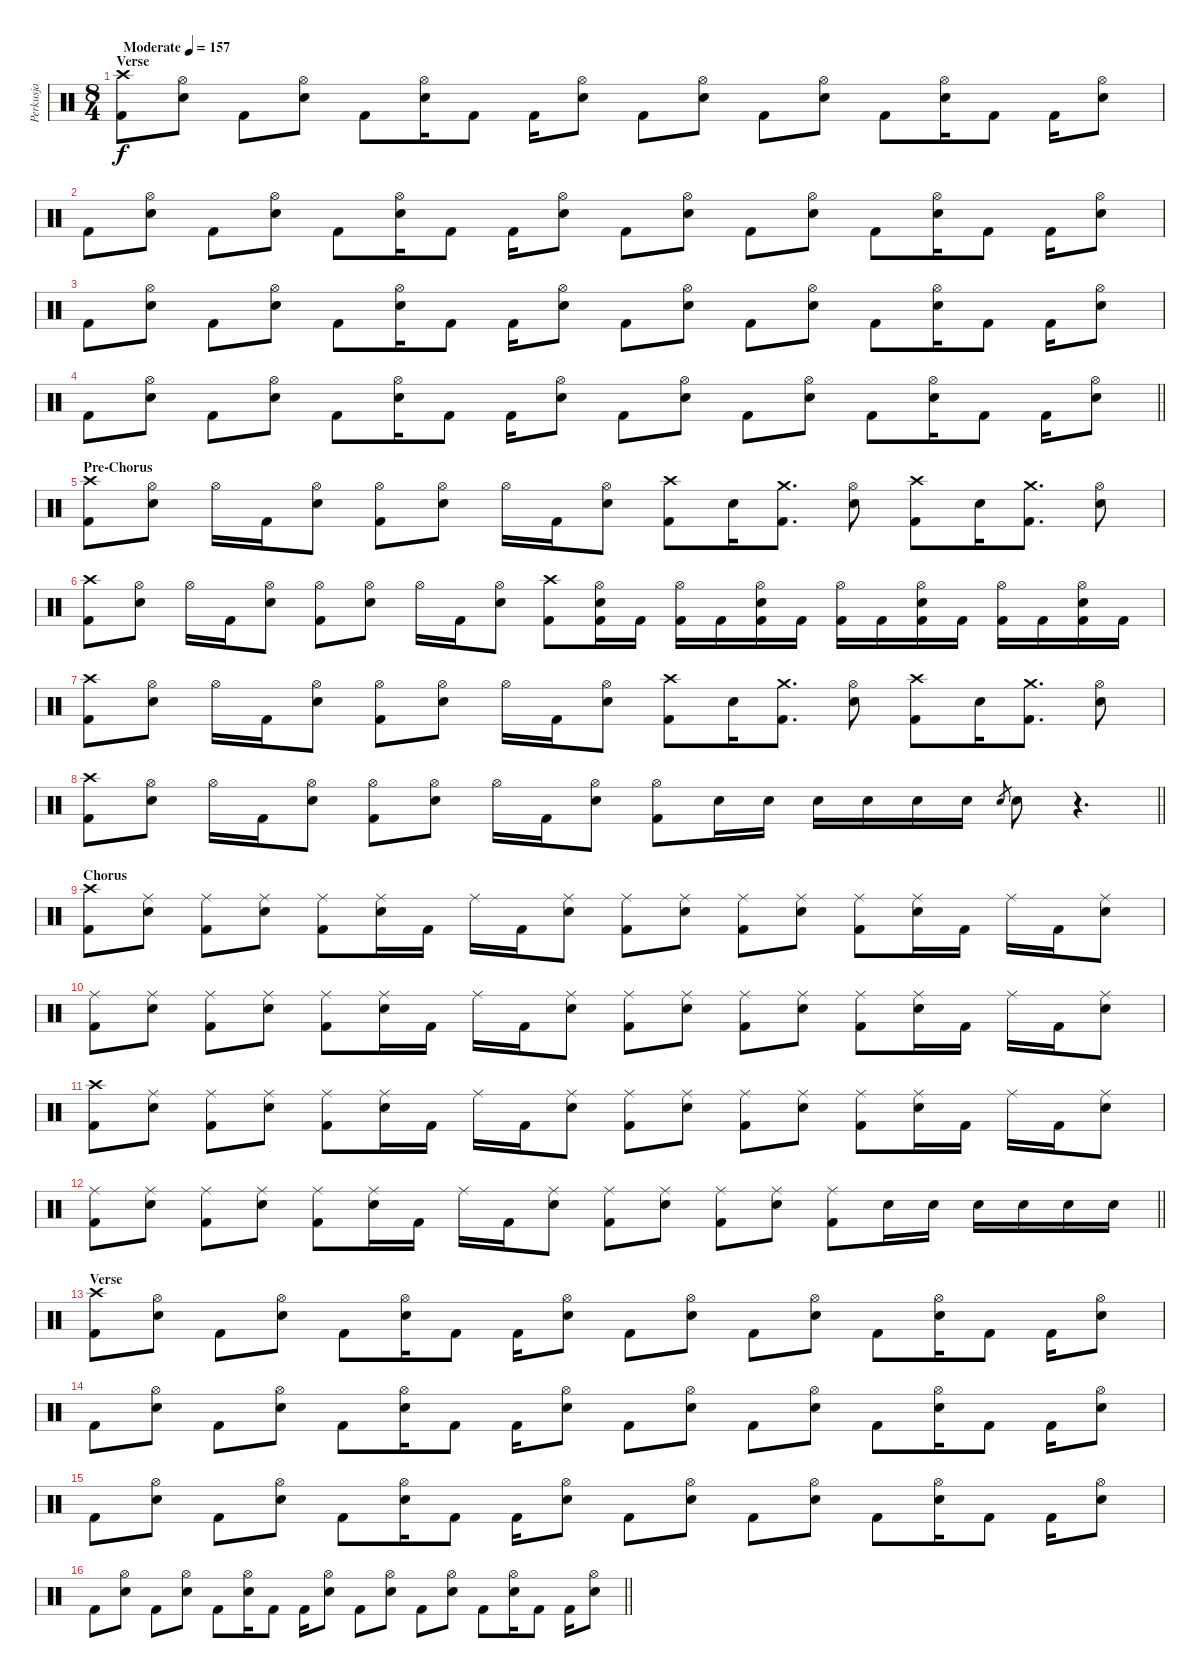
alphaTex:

\track ("Perkusja" "Perkusja") {instrument percussion}
\staff {score}
\articulation defaults
\ts (8 4)
\section ("" "Verse")
\tempo (157 "Moderate")
\clef neutral
\ks c
("Crash high (hit)" "Kick (hit) 2").8{dy f} ("Hi-Hat (open)" "Snare (hit) 2").8 "Kick (hit) 2".8 ("Hi-Hat (open)" "Snare (hit) 2").8 "Kick (hit) 2".8 ("Hi-Hat (open)" "Snare (hit) 2").16 "Kick (hit) 2".8 "Kick (hit) 2".16 ("Hi-Hat (open)" "Snare (hit) 2").8 "Kick (hit) 2".8 ("Hi-Hat (open)" "Snare (hit) 2").8 "Kick (hit) 2".8 ("Hi-Hat (open)" "Snare (hit) 2").8 "Kick (hit) 2".8 ("Hi-Hat (open)" "Snare (hit) 2").16 "Kick (hit) 2".8 "Kick (hit) 2".16 ("Hi-Hat (open)" "Snare (hit) 2").8 |
"Kick (hit) 2".8 ("Hi-Hat (open)" "Snare (hit) 2").8 "Kick (hit) 2".8 ("Hi-Hat (open)" "Snare (hit) 2").8 "Kick (hit) 2".8 ("Hi-Hat (open)" "Snare (hit) 2").16 "Kick (hit) 2".8 "Kick (hit) 2".16 ("Hi-Hat (open)" "Snare (hit) 2").8 "Kick (hit) 2".8 ("Hi-Hat (open)" "Snare (hit) 2").8 "Kick (hit) 2".8 ("Hi-Hat (open)" "Snare (hit) 2").8 "Kick (hit) 2".8 ("Hi-Hat (open)" "Snare (hit) 2").16 "Kick (hit) 2".8 "Kick (hit) 2".16 ("Hi-Hat (open)" "Snare (hit) 2").8 |
"Kick (hit) 2".8 ("Hi-Hat (open)" "Snare (hit) 2").8 "Kick (hit) 2".8 ("Hi-Hat (open)" "Snare (hit) 2").8 "Kick (hit) 2".8 ("Hi-Hat (open)" "Snare (hit) 2").16 "Kick (hit) 2".8 "Kick (hit) 2".16 ("Hi-Hat (open)" "Snare (hit) 2").8 "Kick (hit) 2".8 ("Hi-Hat (open)" "Snare (hit) 2").8 "Kick (hit) 2".8 ("Hi-Hat (open)" "Snare (hit) 2").8 "Kick (hit) 2".8 ("Hi-Hat (open)" "Snare (hit) 2").16 "Kick (hit) 2".8 "Kick (hit) 2".16 ("Hi-Hat (open)" "Snare (hit) 2").8 |
\barLineRight lightlight "Kick (hit) 2".8
("Hi-Hat (open)" "Snare (hit) 2").8 "Kick (hit) 2".8 ("Hi-Hat (open)" "Snare (hit) 2").8 "Kick (hit) 2".8 ("Hi-Hat (open)" "Snare (hit) 2").16 "Kick (hit) 2".8 "Kick (hit) 2".16 ("Hi-Hat (open)" "Snare (hit) 2").8 "Kick (hit) 2".8 ("Hi-Hat (open)" "Snare (hit) 2").8 "Kick (hit) 2".8 ("Hi-Hat (open)" "Snare (hit) 2").8 "Kick (hit) 2".8 ("Hi-Hat (open)" "Snare (hit) 2").16 "Kick (hit) 2".8 "Kick (hit) 2".16 ("Hi-Hat (open)" "Snare (hit) 2").8 |
\section ("" "Pre-Chorus")
("Crash high (hit)" "Kick (hit) 2").8 ("Hi-Hat (open)" "Snare (hit) 2").8 "Hi-Hat (open)".16 "Kick (hit) 2".16 ("Hi-Hat (open)" "Snare (hit) 2").8 ("Hi-Hat (open)" "Kick (hit) 2").8 ("Hi-Hat (open)" "Snare (hit) 2").8 "Hi-Hat (open)".16 "Kick (hit) 2".16 ("Hi-Hat (open)" "Snare (hit) 2").8 ("Crash high (hit)" "Kick (hit) 2").8 "Snare (hit) 2".16 ("Crash medium (hit)" "Kick (hit) 2").8{d} ("Hi-Hat (open)" "Snare (hit) 2").8 ("Crash high (hit)" "Kick (hit) 2").8 "Snare (hit) 2".16 ("Crash medium (hit)" "Kick (hit) 2").8{d} ("Hi-Hat (open)" "Snare (hit) 2").8 |
("Crash high (hit)" "Kick (hit) 2").8 ("Hi-Hat (open)" "Snare (hit) 2").8 "Hi-Hat (open)".16 "Kick (hit) 2".16 ("Hi-Hat (open)" "Snare (hit) 2").8 ("Hi-Hat (open)" "Kick (hit) 2").8 ("Hi-Hat (open)" "Snare (hit) 2").8 "Hi-Hat (open)".16 "Kick (hit) 2".16 ("Hi-Hat (open)" "Snare (hit) 2").8 ("Crash high (hit)" "Kick (hit) 2").8 ("Hi-Hat (open)" "Snare (hit) 2" "Kick (hit) 2").16 "Kick (hit) 2".16 ("Hi-Hat (open)" "Kick (hit) 2").16 "Kick (hit) 2".16 ("Hi-Hat (open)" "Snare (hit) 2" "Kick (hit) 2").16 "Kick (hit) 2".16 ("Hi-Hat (open)" "Kick (hit) 2").16 "Kick (hit) 2".16 ("Hi-Hat (open)" "Snare (hit) 2" "Kick (hit) 2").16 "Kick (hit) 2".16 ("Hi-Hat (open)" "Kick (hit) 2").16 "Kick (hit) 2".16 ("Hi-Hat (open)" "Snare (hit) 2" "Kick (hit) 2").16 "Kick (hit) 2".16 |
("Crash high (hit)" "Kick (hit) 2").8 ("Hi-Hat (open)" "Snare (hit) 2").8 "Hi-Hat (open)".16 "Kick (hit) 2".16 ("Hi-Hat (open)" "Snare (hit) 2").8 ("Hi-Hat (open)" "Kick (hit) 2").8 ("Hi-Hat (open)" "Snare (hit) 2").8 "Hi-Hat (open)".16 "Kick (hit) 2".16 ("Hi-Hat (open)" "Snare (hit) 2").8 ("Crash high (hit)" "Kick (hit) 2").8 "Snare (hit) 2".16 ("Crash medium (hit)" "Kick (hit) 2").8{d} ("Hi-Hat (open)" "Snare (hit) 2").8 ("Crash high (hit)" "Kick (hit) 2").8 "Snare (hit) 2".16 ("Crash medium (hit)" "Kick (hit) 2").8{d} ("Hi-Hat (open)" "Snare (hit) 2").8 |
\barLineRight lightlight
("Crash high (hit)" "Kick (hit) 2").8 ("Hi-Hat (open)" "Snare (hit) 2").8 "Hi-Hat (open)".16 "Kick (hit) 2".16 ("Hi-Hat (open)" "Snare (hit) 2").8 ("Hi-Hat (open)" "Kick (hit) 2").8 ("Hi-Hat (open)" "Snare (hit) 2").8 "Hi-Hat (open)".16 "Kick (hit) 2".16 ("Hi-Hat (open)" "Snare (hit) 2").8 ("Hi-Hat (open)" "Kick (hit) 2").8 "Snare (hit) 2".16 "Snare (hit) 2".16 "Snare (hit) 2".16 "Snare (hit) 2".16 "Snare (hit) 2".16 "Snare (hit) 2".16 "Snare (hit) 2".8{gr} "Snare (hit) 2".8 r.4{d} |
\section ("" "Chorus")
("Crash high (hit)" "Kick (hit) 2").8 ("Ride (middle)" "Snare (hit) 2").8 ("Ride (middle)" "Kick (hit) 2").8 ("Ride (middle)" "Snare (hit) 2").8 ("Ride (middle)" "Kick (hit) 2").8 ("Ride (middle)" "Snare (hit) 2").16 "Kick (hit) 2".16 "Ride (middle)".16 "Kick (hit) 2".16 ("Ride (middle)" "Snare (hit) 2").8 ("Ride (middle)" "Kick (hit) 2").8 ("Ride (middle)" "Snare (hit) 2").8 ("Ride (middle)" "Kick (hit) 2").8 ("Ride (middle)" "Snare (hit) 2").8 ("Ride (middle)" "Kick (hit) 2").8 ("Ride (middle)" "Snare (hit) 2").16 "Kick (hit) 2".16 "Ride (middle)".16 "Kick (hit) 2".16 ("Ride (middle)" "Snare (hit) 2").8 |
("Ride (middle)" "Kick (hit) 2").8 ("Ride (middle)" "Snare (hit) 2").8 ("Ride (middle)" "Kick (hit) 2").8 ("Ride (middle)" "Snare (hit) 2").8 ("Ride (middle)" "Kick (hit) 2").8 ("Ride (middle)" "Snare (hit) 2").16 "Kick (hit) 2".16 "Ride (middle)".16 "Kick (hit) 2".16 ("Ride (middle)" "Snare (hit) 2").8 ("Ride (middle)" "Kick (hit) 2").8 ("Ride (middle)" "Snare (hit) 2").8 ("Ride (middle)" "Kick (hit) 2").8 ("Ride (middle)" "Snare (hit) 2").8 ("Ride (middle)" "Kick (hit) 2").8 ("Ride (middle)" "Snare (hit) 2").16 "Kick (hit) 2".16 "Ride (middle)".16 "Kick (hit) 2".16 ("Ride (middle)" "Snare (hit) 2").8 |
("Crash high (hit)" "Kick (hit) 2").8 ("Ride (middle)" "Snare (hit) 2").8 ("Ride (middle)" "Kick (hit) 2").8 ("Ride (middle)" "Snare (hit) 2").8 ("Ride (middle)" "Kick (hit) 2").8 ("Ride (middle)" "Snare (hit) 2").16 "Kick (hit) 2".16 "Ride (middle)".16 "Kick (hit) 2".16 ("Ride (middle)" "Snare (hit) 2").8 ("Ride (middle)" "Kick (hit) 2").8 ("Ride (middle)" "Snare (hit) 2").8 ("Ride (middle)" "Kick (hit) 2").8 ("Ride (middle)" "Snare (hit) 2").8 ("Ride (middle)" "Kick (hit) 2").8 ("Ride (middle)" "Snare (hit) 2").16 "Kick (hit) 2".16 "Ride (middle)".16 "Kick (hit) 2".16 ("Ride (middle)" "Snare (hit) 2").8 |
\barLineRight lightlight
("Ride (middle)" "Kick (hit) 2").8 ("Ride (middle)" "Snare (hit) 2").8 ("Ride (middle)" "Kick (hit) 2").8 ("Ride (middle)" "Snare (hit) 2").8 ("Ride (middle)" "Kick (hit) 2").8 ("Ride (middle)" "Snare (hit) 2").16 "Kick (hit) 2".16 "Ride (middle)".16 "Kick (hit) 2".16 ("Ride (middle)" "Snare (hit) 2").8 ("Ride (middle)" "Kick (hit) 2").8 ("Ride (middle)" "Snare (hit) 2").8 ("Ride (middle)" "Kick (hit) 2").8 ("Ride (middle)" "Snare (hit) 2").8 ("Ride (middle)" "Kick (hit) 2").8 "Snare (hit) 2".16 "Snare (hit) 2".16 "Snare (hit) 2".16 "Snare (hit) 2".16 "Snare (hit) 2".16 "Snare (hit) 2".16 |
\section ("" "Verse")
("Crash high (hit)" "Kick (hit) 2").8 ("Hi-Hat (open)" "Snare (hit) 2").8 "Kick (hit) 2".8 ("Hi-Hat (open)" "Snare (hit) 2").8 "Kick (hit) 2".8 ("Hi-Hat (open)" "Snare (hit) 2").16 "Kick (hit) 2".8 "Kick (hit) 2".16 ("Hi-Hat (open)" "Snare (hit) 2").8 "Kick (hit) 2".8 ("Hi-Hat (open)" "Snare (hit) 2").8 "Kick (hit) 2".8 ("Hi-Hat (open)" "Snare (hit) 2").8 "Kick (hit) 2".8 ("Hi-Hat (open)" "Snare (hit) 2").16 "Kick (hit) 2".8 "Kick (hit) 2".16 ("Hi-Hat (open)" "Snare (hit) 2").8 |
"Kick (hit) 2".8 ("Hi-Hat (open)" "Snare (hit) 2").8 "Kick (hit) 2".8 ("Hi-Hat (open)" "Snare (hit) 2").8 "Kick (hit) 2".8 ("Hi-Hat (open)" "Snare (hit) 2").16 "Kick (hit) 2".8 "Kick (hit) 2".16 ("Hi-Hat (open)" "Snare (hit) 2").8 "Kick (hit) 2".8 ("Hi-Hat (open)" "Snare (hit) 2").8 "Kick (hit) 2".8 ("Hi-Hat (open)" "Snare (hit) 2").8 "Kick (hit) 2".8 ("Hi-Hat (open)" "Snare (hit) 2").16 "Kick (hit) 2".8 "Kick (hit) 2".16 ("Hi-Hat (open)" "Snare (hit) 2").8 |
"Kick (hit) 2".8 ("Hi-Hat (open)" "Snare (hit) 2").8 "Kick (hit) 2".8 ("Hi-Hat (open)" "Snare (hit) 2").8 "Kick (hit) 2".8 ("Hi-Hat (open)" "Snare (hit) 2").16 "Kick (hit) 2".8 "Kick (hit) 2".16 ("Hi-Hat (open)" "Snare (hit) 2").8 "Kick (hit) 2".8 ("Hi-Hat (open)" "Snare (hit) 2").8 "Kick (hit) 2".8 ("Hi-Hat (open)" "Snare (hit) 2").8 "Kick (hit) 2".8 ("Hi-Hat (open)" "Snare (hit) 2").16 "Kick (hit) 2".8 "Kick (hit) 2".16 ("Hi-Hat (open)" "Snare (hit) 2").8 |
\barLineRight lightlight "Kick (hit) 2".8
("Hi-Hat (open)" "Snare (hit) 2").8 "Kick (hit) 2".8 ("Hi-Hat (open)" "Snare (hit) 2").8 "Kick (hit) 2".8 ("Hi-Hat (open)" "Snare (hit) 2").16 "Kick (hit) 2".8 "Kick (hit) 2".16 ("Hi-Hat (open)" "Snare (hit) 2").8 "Kick (hit) 2".8 ("Hi-Hat (open)" "Snare (hit) 2").8 "Kick (hit) 2".8 ("Hi-Hat (open)" "Snare (hit) 2").8 "Kick (hit) 2".8 ("Hi-Hat (open)" "Snare (hit) 2").16 "Kick (hit) 2".8 "Kick (hit) 2".16 ("Hi-Hat (open)" "Snare (hit) 2").8
